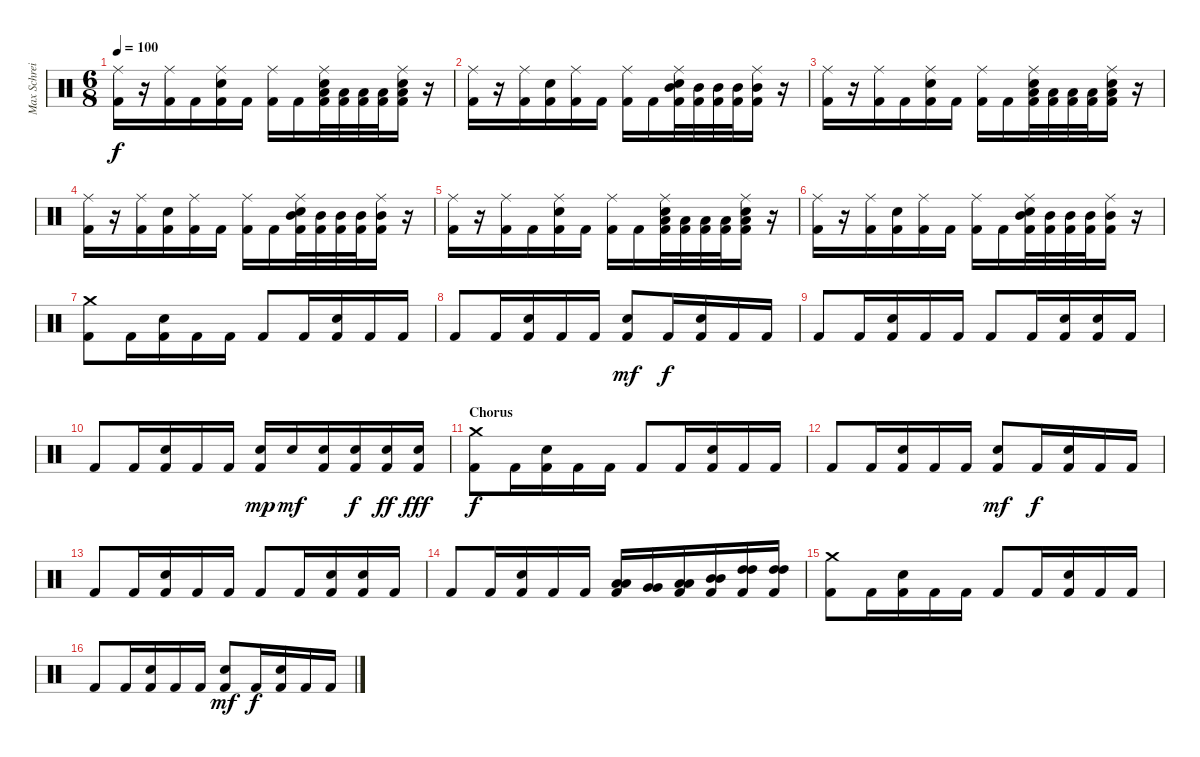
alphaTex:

\track ("Max Schreiber " "Max Schrei") {instrument percussion}
\staff {score}
\articulation defaults
\ts (6 8)
\tempo 100
\clef neutral
\ks c
("Ride (middle)" "Kick (hit) 2").16{dy f} r.16 ("Ride (middle)" "Kick (hit) 2").16 "Kick (hit) 2".16 ("Ride (middle)" "Electric Snare (hit)" "Kick (hit) 2").16 "Kick (hit) 2".16 ("Ride (middle)" "Kick (hit) 2").16 "Kick (hit) 2".16 ("Ride (middle)" "Electric Snare (hit)" "Low Floor Tom (hit)" "Kick (hit) 2").32 ("Low Floor Tom (hit)" "Kick (hit) 2").32 ("Low Floor Tom (hit)" "Kick (hit) 2").32 ("Low Floor Tom (hit)" "Kick (hit) 2").32 ("Ride (middle)" "Electric Snare (hit)" "Low Floor Tom (hit)" "Kick (hit) 2").16 r.16 |
("Ride (middle)" "Kick (hit) 2").16 r.16 ("Ride (middle)" "Kick (hit) 2").16 ("Electric Snare (hit)" "Kick (hit) 2").16 ("Ride (middle)" "Kick (hit) 2").16 "Kick (hit) 2".16 ("Ride (middle)" "Kick (hit) 2").16 "Kick (hit) 2".16 ("Ride (middle)" "Electric Snare (hit)" "Mid Tom (hit)" "Kick (hit) 2").32 ("Mid Tom (hit)" "Kick (hit) 2").32 ("Mid Tom (hit)" "Kick (hit) 2").32 ("Mid Tom (hit)" "Kick (hit) 2").32 ("Ride (middle)" "Mid Tom (hit)" "Kick (hit) 2").16 r.16 |
("Ride (middle)" "Kick (hit) 2").16 r.16 ("Ride (middle)" "Kick (hit) 2").16 "Kick (hit) 2".16 ("Ride (middle)" "Electric Snare (hit)" "Kick (hit) 2").16 "Kick (hit) 2".16 ("Ride (middle)" "Kick (hit) 2").16 "Kick (hit) 2".16 ("Ride (middle)" "Electric Snare (hit)" "Low Floor Tom (hit)" "Kick (hit) 2").32 ("Low Floor Tom (hit)" "Kick (hit) 2").32 ("Low Floor Tom (hit)" "Kick (hit) 2").32 ("Low Floor Tom (hit)" "Kick (hit) 2").32 ("Ride (middle)" "Electric Snare (hit)" "Low Floor Tom (hit)" "Kick (hit) 2").16 r.16 |
("Ride (middle)" "Kick (hit) 2").16 r.16 ("Ride (middle)" "Kick (hit) 2").16 ("Electric Snare (hit)" "Kick (hit) 2").16 ("Ride (middle)" "Kick (hit) 2").16 "Kick (hit) 2".16 ("Ride (middle)" "Kick (hit) 2").16 "Kick (hit) 2".16 ("Ride (middle)" "Electric Snare (hit)" "Mid Tom (hit)" "Kick (hit) 2").32 ("Mid Tom (hit)" "Kick (hit) 2").32 ("Mid Tom (hit)" "Kick (hit) 2").32 ("Mid Tom (hit)" "Kick (hit) 2").32 ("Ride (middle)" "Mid Tom (hit)" "Kick (hit) 2").16 r.16 |
("Ride (middle)" "Kick (hit) 2").16 r.16 ("Ride (middle)" "Kick (hit) 2").16 "Kick (hit) 2".16 ("Ride (middle)" "Electric Snare (hit)" "Kick (hit) 2").16 "Kick (hit) 2".16 ("Ride (middle)" "Kick (hit) 2").16 "Kick (hit) 2".16 ("Ride (middle)" "Electric Snare (hit)" "Low Floor Tom (hit)" "Kick (hit) 2").32 ("Low Floor Tom (hit)" "Kick (hit) 2").32 ("Low Floor Tom (hit)" "Kick (hit) 2").32 ("Low Floor Tom (hit)" "Kick (hit) 2").32 ("Ride (middle)" "Electric Snare (hit)" "Low Floor Tom (hit)" "Kick (hit) 2").16 r.16 |
("Ride (middle)" "Kick (hit) 2").16 r.16 ("Ride (middle)" "Kick (hit) 2").16 ("Electric Snare (hit)" "Kick (hit) 2").16 ("Ride (middle)" "Kick (hit) 2").16 "Kick (hit) 2".16 ("Ride (middle)" "Kick (hit) 2").16 "Kick (hit) 2".16 ("Ride (middle)" "Electric Snare (hit)" "Mid Tom (hit)" "Kick (hit) 2").32 ("Mid Tom (hit)" "Kick (hit) 2").32 ("Mid Tom (hit)" "Kick (hit) 2").32 ("Mid Tom (hit)" "Kick (hit) 2").32 ("Ride (middle)" "Mid Tom (hit)" "Kick (hit) 2").16 r.16 |
("Crash medium (hit)" "Kick (hit) 2").8 "Kick (hit) 2".16 ("Electric Snare (hit)" "Kick (hit) 2").16 "Kick (hit) 2".16 "Kick (hit) 2".16 "Kick (hit) 2".8 "Kick (hit) 2".16 ("Electric Snare (hit)" "Kick (hit) 2").16 "Kick (hit) 2".16 "Kick (hit) 2".16 |
"Kick (hit) 2".8 "Kick (hit) 2".16 ("Electric Snare (hit)" "Kick (hit) 2").16 "Kick (hit) 2".16 "Kick (hit) 2".16 ("Electric Snare (hit)" "Kick (hit) 2").8{dy mf} "Kick (hit) 2".16{dy f} ("Electric Snare (hit)" "Kick (hit) 2").16 "Kick (hit) 2".16 "Kick (hit) 2".16 |
"Kick (hit) 2".8 "Kick (hit) 2".16 ("Electric Snare (hit)" "Kick (hit) 2").16 "Kick (hit) 2".16 "Kick (hit) 2".16 "Kick (hit) 2".8 "Kick (hit) 2".16 ("Electric Snare (hit)" "Kick (hit) 2").16 ("Electric Snare (hit)" "Kick (hit) 2").16 "Kick (hit) 2".16 |
"Kick (hit) 2".8 "Kick (hit) 2".16 ("Electric Snare (hit)" "Kick (hit) 2").16 "Kick (hit) 2".16 "Kick (hit) 2".16 ("Electric Snare (hit)" "Kick (hit) 2").16{dy mp} "Electric Snare (hit)".16{dy mf} ("Electric Snare (hit)" "Kick (hit) 2").16 ("Electric Snare (hit)" "Kick (hit) 2").16{dy f} ("Electric Snare (hit)" "Kick (hit) 2").16{dy ff} ("Electric Snare (hit)" "Kick (hit) 2").16{dy fff} |
\section ("" "Chorus")
("Crash medium (hit)" "Kick (hit) 2").8{dy f} "Kick (hit) 2".16 ("Electric Snare (hit)" "Kick (hit) 2").16 "Kick (hit) 2".16 "Kick (hit) 2".16 "Kick (hit) 2".8 "Kick (hit) 2".16 ("Electric Snare (hit)" "Kick (hit) 2").16 "Kick (hit) 2".16 "Kick (hit) 2".16 |
"Kick (hit) 2".8 "Kick (hit) 2".16 ("Electric Snare (hit)" "Kick (hit) 2").16 "Kick (hit) 2".16 "Kick (hit) 2".16 ("Electric Snare (hit)" "Kick (hit) 2").8{dy mf} "Kick (hit) 2".16{dy f} ("Electric Snare (hit)" "Kick (hit) 2").16 "Kick (hit) 2".16 "Kick (hit) 2".16 |
"Kick (hit) 2".8 "Kick (hit) 2".16 ("Electric Snare (hit)" "Kick (hit) 2").16 "Kick (hit) 2".16 "Kick (hit) 2".16 "Kick (hit) 2".8 "Kick (hit) 2".16 ("Electric Snare (hit)" "Kick (hit) 2").16 ("Electric Snare (hit)" "Kick (hit) 2").16 "Kick (hit) 2".16 |
"Kick (hit) 2".8 "Kick (hit) 2".16 ("Electric Snare (hit)" "Kick (hit) 2").16 "Kick (hit) 2".16 "Kick (hit) 2".16 ("Low Floor Tom (hit)" "Low Floor Tom (hit)" "Kick (hit) 2").16 ("Very Low Tom (hit)" "Very Low Tom (hit)").16 ("Low Tom (hit)" "Low Tom (hit)" "Kick (hit) 2").16 ("Mid Tom (hit)" "Mid Tom (hit)" "Kick (hit) 2").16 ("High Tom (hit)" "High Tom (hit)" "Kick (hit) 2").16 ("High Tom (hit)" "High Tom (hit)" "Kick (hit) 2").16 |
("Crash medium (hit)" "Kick (hit) 2").8 "Kick (hit) 2".16 ("Electric Snare (hit)" "Kick (hit) 2").16 "Kick (hit) 2".16 "Kick (hit) 2".16 "Kick (hit) 2".8 "Kick (hit) 2".16 ("Electric Snare (hit)" "Kick (hit) 2").16 "Kick (hit) 2".16 "Kick (hit) 2".16 |
"Kick (hit) 2".8 "Kick (hit) 2".16 ("Electric Snare (hit)" "Kick (hit) 2").16 "Kick (hit) 2".16 "Kick (hit) 2".16 ("Electric Snare (hit)" "Kick (hit) 2").8{dy mf} "Kick (hit) 2".16{dy f} ("Electric Snare (hit)" "Kick (hit) 2").16 "Kick (hit) 2".16 "Kick (hit) 2".16
